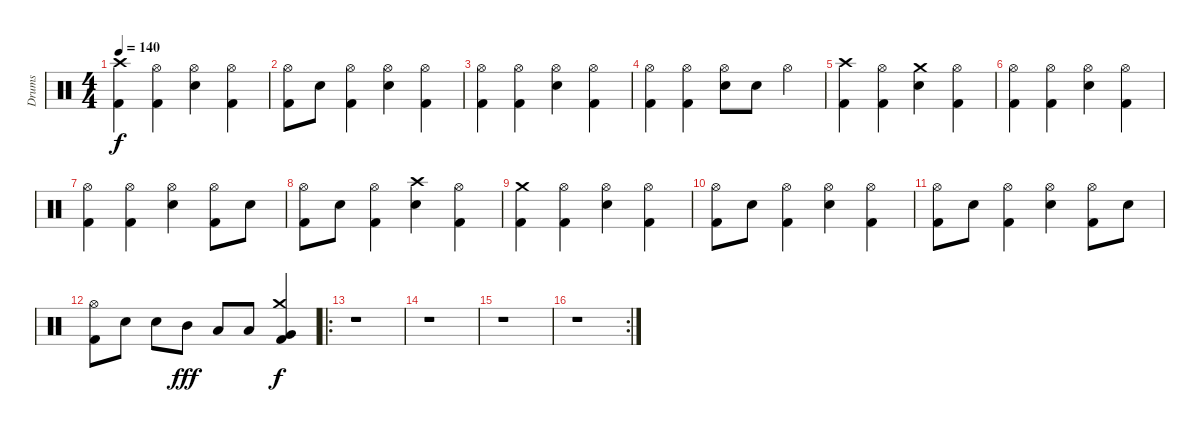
\track ("Drums" "Drums") {instrument percussion}
\staff {score}
\articulation defaults
\ts (4 4)
\tempo 140
\clef neutral
\ks c
("Kick (hit) 2" "Crash high (hit)").4{dy f} ("Kick (hit) 2" "Hi-Hat (open)").4 ("Hi-Hat (open)" "Snare (hit) 2").4 ("Kick (hit) 2" "Hi-Hat (open)").4 |
("Kick (hit) 2" "Hi-Hat (open)").8 "Snare (hit) 2".8 ("Kick (hit) 2" "Hi-Hat (open)").4 ("Hi-Hat (open)" "Snare (hit) 2").4 ("Kick (hit) 2" "Hi-Hat (open)").4 |
("Kick (hit) 2" "Hi-Hat (open)").4 ("Kick (hit) 2" "Hi-Hat (open)").4 ("Hi-Hat (open)" "Snare (hit) 2").4 ("Kick (hit) 2" "Hi-Hat (open)").4 |
("Kick (hit) 2" "Hi-Hat (open)").4 ("Kick (hit) 2" "Hi-Hat (open)").4 ("Hi-Hat (open)" "Snare (hit) 2").8 "Snare (hit) 2".8 "Hi-Hat (open)".4 |
("Kick (hit) 2" "Crash high (hit)").4 ("Kick (hit) 2" "Hi-Hat (open)").4 ("Crash medium (hit)" "Snare (hit) 2").4 ("Kick (hit) 2" "Hi-Hat (open)").4 |
("Kick (hit) 2" "Hi-Hat (open)").4 ("Kick (hit) 2" "Hi-Hat (open)").4 ("Hi-Hat (open)" "Snare (hit) 2").4 ("Kick (hit) 2" "Hi-Hat (open)").4 |
("Kick (hit) 2" "Hi-Hat (open)").4 ("Kick (hit) 2" "Hi-Hat (open)").4 ("Hi-Hat (open)" "Snare (hit) 2").4 ("Kick (hit) 2" "Hi-Hat (open)").8 "Snare (hit) 2".8 |
("Kick (hit) 2" "Hi-Hat (open)").8 "Snare (hit) 2".8 ("Kick (hit) 2" "Hi-Hat (open)").4 ("Crash high (hit)" "Snare (hit) 2").4 ("Kick (hit) 2" "Hi-Hat (open)").4 |
("Kick (hit) 2" "Crash medium (hit)").4 ("Kick (hit) 2" "Hi-Hat (open)").4 ("Hi-Hat (open)" "Snare (hit) 2").4 ("Kick (hit) 2" "Hi-Hat (open)").4 |
("Kick (hit) 2" "Hi-Hat (open)").8 "Snare (hit) 2".8 ("Kick (hit) 2" "Hi-Hat (open)").4 ("Hi-Hat (open)" "Snare (hit) 2").4 ("Kick (hit) 2" "Hi-Hat (open)").4 |
("Kick (hit) 2" "Hi-Hat (open)").8 "Snare (hit) 2".8 ("Kick (hit) 2" "Hi-Hat (open)").4 ("Hi-Hat (open)" "Snare (hit) 2").4 ("Kick (hit) 2" "Hi-Hat (open)").8 "Snare (hit) 2".8 |
("Kick (hit) 2" "Hi-Hat (open)").8 "Snare (hit) 2".8 "Snare (hit) 2".8 "Mid Tom (hit)".8{dy fff} "Low Tom (hit)".8 "Low Tom (hit)".8 ("Kick (hit) 2" "Crash medium (hit)" "Very Low Tom (hit)").4{dy f} |
\ro
r.1 |
r.1 |
r.1 |
\rc 2
r.1
